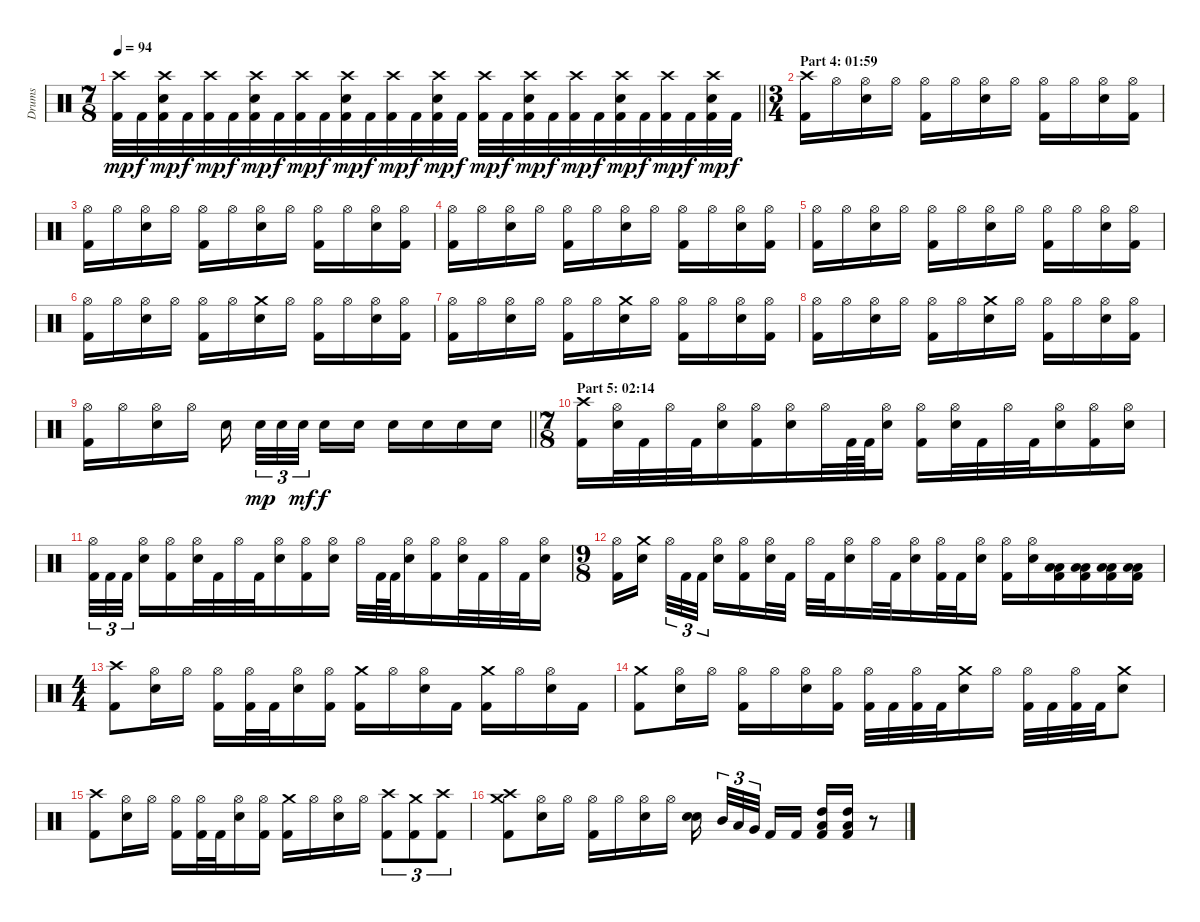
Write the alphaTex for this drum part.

\track ("Drums" "Drums") {instrument percussion}
\staff {score}
\articulation defaults
\ts (7 8)
\tempo 94
\clef neutral
\barLineRight lightlight
\ks c
("Crash high (hit)" "Kick (hit) 2").32{dy mp} "Kick (hit) 2".32{dy f} ("Crash high (hit)" "Electric Snare (hit)" "Kick (hit) 2").32{dy mp} "Kick (hit) 2".32{dy f} ("Crash high (hit)" "Kick (hit) 2").32{dy mp} "Kick (hit) 2".32{dy f} ("Crash high (hit)" "Electric Snare (hit)" "Kick (hit) 2").32{dy mp} "Kick (hit) 2".32{dy f} ("Crash high (hit)" "Kick (hit) 2").32{dy mp} "Kick (hit) 2".32{dy f} ("Crash high (hit)" "Electric Snare (hit)" "Kick (hit) 2").32{dy mp} "Kick (hit) 2".32{dy f} ("Crash high (hit)" "Kick (hit) 2").32{dy mp} "Kick (hit) 2".32{dy f} ("Crash high (hit)" "Electric Snare (hit)" "Kick (hit) 2").32{dy mp} "Kick (hit) 2".32{dy f} ("Crash high (hit)" "Kick (hit) 2").32{dy mp} "Kick (hit) 2".32{dy f} ("Crash high (hit)" "Electric Snare (hit)" "Kick (hit) 2").32{dy mp} "Kick (hit) 2".32{dy f} ("Crash high (hit)" "Kick (hit) 2").32{dy mp} "Kick (hit) 2".32{dy f} ("Crash high (hit)" "Electric Snare (hit)" "Kick (hit) 2").32{dy mp} "Kick (hit) 2".32{dy f} ("Crash high (hit)" "Kick (hit) 2").32{dy mp} "Kick (hit) 2".32{dy f} ("Crash high (hit)" "Electric Snare (hit)" "Kick (hit) 2").32{dy mp} "Kick (hit) 2".32{dy f} |
\ts (3 4)
\section ("" "Part 4: 01:59")
("Crash high (hit)" "Kick (hit) 2").16 "Hi-Hat (open)".16 ("Hi-Hat (open)" "Electric Snare (hit)").16 "Hi-Hat (open)".16 ("Hi-Hat (open)" "Kick (hit) 2").16 "Hi-Hat (open)".16 ("Hi-Hat (open)" "Electric Snare (hit)").16 "Hi-Hat (open)".16 ("Hi-Hat (open)" "Kick (hit) 2").16 "Hi-Hat (open)".16 ("Hi-Hat (open)" "Electric Snare (hit)").16 ("Hi-Hat (open)" "Kick (hit) 2").16 |
("Hi-Hat (open)" "Kick (hit) 2").16 "Hi-Hat (open)".16 ("Hi-Hat (open)" "Electric Snare (hit)").16 "Hi-Hat (open)".16 ("Hi-Hat (open)" "Kick (hit) 2").16 "Hi-Hat (open)".16 ("Hi-Hat (open)" "Electric Snare (hit)").16 "Hi-Hat (open)".16 ("Hi-Hat (open)" "Kick (hit) 2").16 "Hi-Hat (open)".16 ("Hi-Hat (open)" "Electric Snare (hit)").16 ("Hi-Hat (open)" "Kick (hit) 2").16 |
("Hi-Hat (open)" "Kick (hit) 2").16 "Hi-Hat (open)".16 ("Hi-Hat (open)" "Electric Snare (hit)").16 "Hi-Hat (open)".16 ("Hi-Hat (open)" "Kick (hit) 2").16 "Hi-Hat (open)".16 ("Hi-Hat (open)" "Electric Snare (hit)").16 "Hi-Hat (open)".16 ("Hi-Hat (open)" "Kick (hit) 2").16 "Hi-Hat (open)".16 ("Hi-Hat (open)" "Electric Snare (hit)").16 ("Hi-Hat (open)" "Kick (hit) 2").16 |
("Hi-Hat (open)" "Kick (hit) 2").16 "Hi-Hat (open)".16 ("Hi-Hat (open)" "Electric Snare (hit)").16 "Hi-Hat (open)".16 ("Hi-Hat (open)" "Kick (hit) 2").16 "Hi-Hat (open)".16 ("Hi-Hat (open)" "Electric Snare (hit)").16 "Hi-Hat (open)".16 ("Hi-Hat (open)" "Kick (hit) 2").16 "Hi-Hat (open)".16 ("Hi-Hat (open)" "Electric Snare (hit)").16 ("Hi-Hat (open)" "Kick (hit) 2").16 |
("Hi-Hat (open)" "Kick (hit) 2").16 "Hi-Hat (open)".16 ("Hi-Hat (open)" "Electric Snare (hit)").16 "Hi-Hat (open)".16 ("Hi-Hat (open)" "Kick (hit) 2").16 "Hi-Hat (open)".16 ("Crash medium (hit)" "Electric Snare (hit)").16 "Hi-Hat (open)".16 ("Hi-Hat (open)" "Kick (hit) 2").16 "Hi-Hat (open)".16 ("Hi-Hat (open)" "Electric Snare (hit)").16 ("Hi-Hat (open)" "Kick (hit) 2").16 |
("Hi-Hat (open)" "Kick (hit) 2").16 "Hi-Hat (open)".16 ("Hi-Hat (open)" "Electric Snare (hit)").16 "Hi-Hat (open)".16 ("Hi-Hat (open)" "Kick (hit) 2").16 "Hi-Hat (open)".16 ("Crash medium (hit)" "Electric Snare (hit)").16 "Hi-Hat (open)".16 ("Hi-Hat (open)" "Kick (hit) 2").16 "Hi-Hat (open)".16 ("Hi-Hat (open)" "Electric Snare (hit)").16 ("Hi-Hat (open)" "Kick (hit) 2").16 |
("Hi-Hat (open)" "Kick (hit) 2").16 "Hi-Hat (open)".16 ("Hi-Hat (open)" "Electric Snare (hit)").16 "Hi-Hat (open)".16 ("Hi-Hat (open)" "Kick (hit) 2").16 "Hi-Hat (open)".16 ("Crash medium (hit)" "Electric Snare (hit)").16 "Hi-Hat (open)".16 ("Hi-Hat (open)" "Kick (hit) 2").16 "Hi-Hat (open)".16 ("Hi-Hat (open)" "Electric Snare (hit)").16 ("Hi-Hat (open)" "Kick (hit) 2").16 |
\barLineRight lightlight
("Hi-Hat (open)" "Kick (hit) 2").16 "Hi-Hat (open)".16 ("Hi-Hat (open)" "Electric Snare (hit)").16 "Hi-Hat (open)".16 "Electric Snare (hit)".16{beam splitsecondary} "Electric Snare (hit)".32{tu (3 2) dy mp} "Electric Snare (hit)".32{tu (3 2)} "Electric Snare (hit)".32{tu (3 2) dy mf beam splitsecondary} "Electric Snare (hit)".16{dy f} "Electric Snare (hit)".16 "Electric Snare (hit)".16 "Electric Snare (hit)".16 "Electric Snare (hit)".16 "Electric Snare (hit)".16 |
\ts (7 8)
\section ("" "Part 5: 02:14")
("Crash high (hit)" "Kick (hit) 2").16 ("Hi-Hat (open)" "Electric Snare (hit)").32 "Kick (hit) 2".32 "Hi-Hat (open)".32 "Kick (hit) 2".32 ("Hi-Hat (open)" "Electric Snare (hit)").16 ("Hi-Hat (open)" "Kick (hit) 2").16 ("Hi-Hat (open)" "Electric Snare (hit)").16 "Hi-Hat (open)".32 "Kick (hit) 2".64 "Kick (hit) 2".64 ("Hi-Hat (open)" "Electric Snare (hit)").16 ("Hi-Hat (open)" "Kick (hit) 2").16 ("Hi-Hat (open)" "Electric Snare (hit)").32 "Kick (hit) 2".32 "Hi-Hat (open)".32 "Kick (hit) 2".32 ("Hi-Hat (open)" "Electric Snare (hit)").16 ("Hi-Hat (open)" "Kick (hit) 2").16 ("Hi-Hat (open)" "Electric Snare (hit)").16 |
("Hi-Hat (open)" "Kick (hit) 2").32{tu (3 2)} "Kick (hit) 2".32{tu (3 2)} "Kick (hit) 2".32{tu (3 2) beam splitsecondary} ("Hi-Hat (open)" "Electric Snare (hit)").16 ("Hi-Hat (open)" "Kick (hit) 2").16 ("Hi-Hat (open)" "Electric Snare (hit)").32 "Kick (hit) 2".32 "Hi-Hat (open)".32 "Kick (hit) 2".32 ("Hi-Hat (open)" "Electric Snare (hit)").16 ("Hi-Hat (open)" "Kick (hit) 2").16 ("Hi-Hat (open)" "Electric Snare (hit)").16 "Hi-Hat (open)".32 "Kick (hit) 2".64 "Kick (hit) 2".64 ("Hi-Hat (open)" "Electric Snare (hit)").16 ("Hi-Hat (open)" "Kick (hit) 2").16 ("Hi-Hat (open)" "Electric Snare (hit)").32 "Kick (hit) 2".32 "Hi-Hat (open)".32 "Kick (hit) 2".32 ("Hi-Hat (open)" "Electric Snare (hit)").16 |
\ts (9 8)
("Hi-Hat (open)" "Kick (hit) 2").16 ("Crash medium (hit)" "Electric Snare (hit)").16{beam splitsecondary} "Hi-Hat (open)".32{tu (3 2)} "Kick (hit) 2".32{tu (3 2)} "Kick (hit) 2".32{tu (3 2) beam splitsecondary} ("Hi-Hat (open)" "Electric Snare (hit)").16 ("Hi-Hat (open)" "Kick (hit) 2").16 ("Hi-Hat (open)" "Electric Snare (hit)").32 "Kick (hit) 2".32 "Hi-Hat (open)".32 "Kick (hit) 2".32 ("Hi-Hat (open)" "Electric Snare (hit)").16 "Hi-Hat (open)".32 "Kick (hit) 2".32 ("Hi-Hat (open)" "Electric Snare (hit)").16 ("Hi-Hat (open)" "Kick (hit) 2").32 "Kick (hit) 2".32 ("Hi-Hat (open)" "Electric Snare (hit)").16 ("Hi-Hat (open)" "Kick (hit) 2").16 ("Hi-Hat (open)" "Electric Snare (hit)").16 ("Low Tom (hit)" "Low Floor Tom (hit)" "Kick (hit) 2").16 ("Low Tom (hit)" "Low Floor Tom (hit)" "Kick (hit) 2").16 ("Low Tom (hit)" "Low Floor Tom (hit)" "Kick (hit) 2").16 ("Low Tom (hit)" "Low Floor Tom (hit)" "Kick (hit) 2").16 |
\ts (4 4)
("Crash high (hit)" "Kick (hit) 2").8 ("Hi-Hat (open)" "Electric Snare (hit)").16 "Hi-Hat (open)".16 ("Hi-Hat (open)" "Kick (hit) 2").16 ("Hi-Hat (open)" "Kick (hit) 2").32 "Kick (hit) 2".32 ("Hi-Hat (open)" "Electric Snare (hit)").16 ("Hi-Hat (open)" "Kick (hit) 2").16 ("Crash medium (hit)" "Kick (hit) 2").16 "Hi-Hat (open)".16 ("Hi-Hat (open)" "Electric Snare (hit)").16 "Kick (hit) 2".16 ("Crash medium (hit)" "Kick (hit) 2").16 "Hi-Hat (open)".16 ("Hi-Hat (open)" "Electric Snare (hit)").16 "Kick (hit) 2".16 |
("Crash medium (hit)" "Kick (hit) 2").8 ("Hi-Hat (open)" "Electric Snare (hit)").16 "Hi-Hat (open)".16 ("Hi-Hat (open)" "Kick (hit) 2").16 "Hi-Hat (open)".16 ("Hi-Hat (open)" "Electric Snare (hit)").16 ("Hi-Hat (open)" "Kick (hit) 2").16 ("Hi-Hat (open)" "Kick (hit) 2").32 "Kick (hit) 2".32 ("Hi-Hat (open)" "Kick (hit) 2").32 "Kick (hit) 2".32 ("Crash medium (hit)" "Electric Snare (hit)").16 "Hi-Hat (open)".16 ("Hi-Hat (open)" "Kick (hit) 2").32 "Kick (hit) 2".32 ("Hi-Hat (open)" "Kick (hit) 2").32 "Kick (hit) 2".32 ("Crash medium (hit)" "Electric Snare (hit)").8 |
("Crash high (hit)" "Kick (hit) 2").8 ("Hi-Hat (open)" "Electric Snare (hit)").16 "Hi-Hat (open)".16 ("Hi-Hat (open)" "Kick (hit) 2").16 ("Hi-Hat (open)" "Kick (hit) 2").32 "Kick (hit) 2".32 ("Hi-Hat (open)" "Electric Snare (hit)").16 ("Hi-Hat (open)" "Kick (hit) 2").16 ("Crash medium (hit)" "Kick (hit) 2").16 "Hi-Hat (open)".16 ("Hi-Hat (open)" "Electric Snare (hit)").16 "Hi-Hat (open)".16 ("Crash high (hit)" "Kick (hit) 2").8{tu (3 2)} ("Crash medium (hit)" "Kick (hit) 2").8{tu (3 2)} ("Crash high (hit)" "Kick (hit) 2").8{tu (3 2)} |
("Crash high (hit)" "Crash medium (hit)" "Kick (hit) 2").8 ("Hi-Hat (open)" "Electric Snare (hit)").16 "Hi-Hat (open)".16 ("Hi-Hat (open)" "Kick (hit) 2").16 "Hi-Hat (open)".16 ("Hi-Hat (open)" "Electric Snare (hit)").16 "Hi-Hat (open)".16 ("Electric Snare (hit)" "Electric Snare (hit)").16{bd 60 beam splitsecondary} "Mid Tom (hit)".32{tu (3 2)} "Low Tom (hit)".32{tu (3 2)} "Very Low Tom (hit)".32{tu (3 2) beam splitsecondary} "Kick (hit) 2".16 "Kick (hit) 2".16 ("High Tom (hit)" "Low Tom (hit)" "Kick (hit) 2").16 ("High Tom (hit)" "Low Tom (hit)" "Kick (hit) 2").16 r.8
